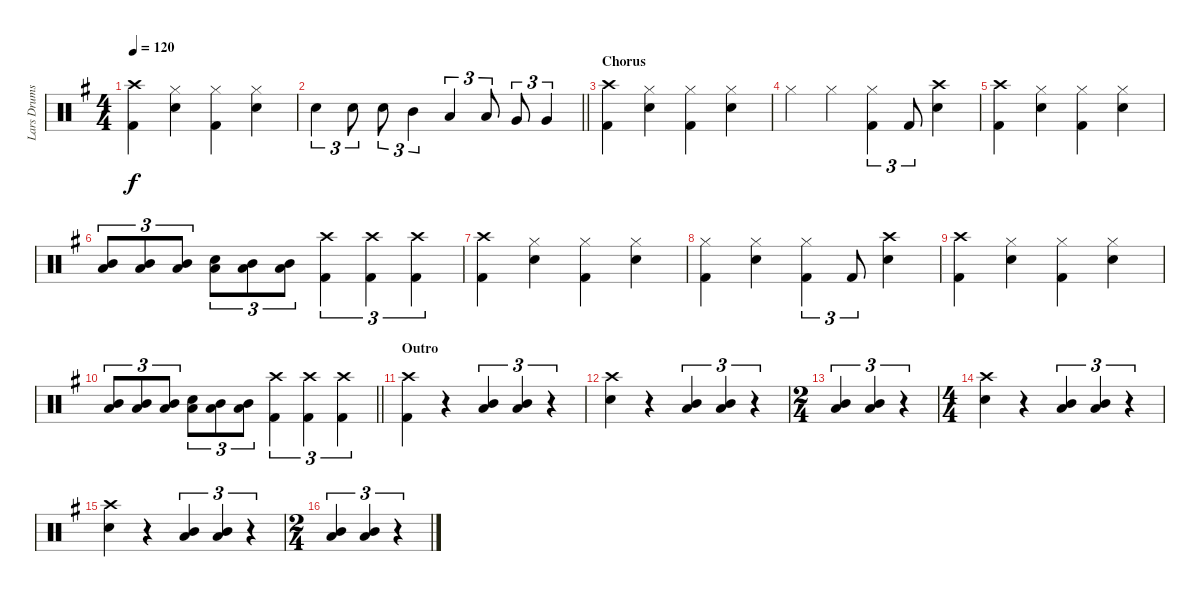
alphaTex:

\track ("Lars Drums" "Lars Drums") {instrument percussion}
\staff {score}
\articulation defaults
\ts (4 4)
\tempo 120
\clef neutral
\ks g
("Crash high (hit)" "Kick (hit) 2").4{dy f} ("Hi-Hat (closed)" "Snare (hit) 2").4 ("Hi-Hat (closed)" "Kick (hit) 2").4 ("Hi-Hat (closed)" "Snare (hit) 2").4 |
\barLineRight lightlight "Snare (hit) 2".4{tu (3 2)} "Snare (hit) 2".8{tu (3 2)} "Snare (hit) 2".8{tu (3 2)} "Mid Tom (hit)".4{tu (3 2)} "Low Tom (hit)".4{tu (3 2)} "Low Tom (hit)".8{tu (3 2)} "Very Low Tom (hit)".8{tu (3 2)} "Very Low Tom (hit)".4{tu (3 2)}
|
\section ("" "Chorus")
("Crash high (hit)" "Kick (hit) 2").4 ("Hi-Hat (closed)" "Snare (hit) 2").4 ("Hi-Hat (closed)" "Kick (hit) 2").4 ("Hi-Hat (closed)" "Snare (hit) 2").4 |
"Hi-Hat (closed)".4 "Hi-Hat (closed)".4 ("Hi-Hat (closed)" "Kick (hit) 2").4{tu (3 2)} "Kick (hit) 2".8{tu (3 2)} ("Crash high (hit)" "Snare (hit) 2").4 |
("Crash high (hit)" "Kick (hit) 2").4 ("Hi-Hat (closed)" "Snare (hit) 2").4 ("Hi-Hat (closed)" "Kick (hit) 2").4 ("Hi-Hat (closed)" "Snare (hit) 2").4 |
("Low Tom (hit)" "Mid Tom (hit)").8{tu (3 2)} ("Low Tom (hit)" "Mid Tom (hit)").8{tu (3 2)} ("Low Tom (hit)" "Mid Tom (hit)").8{tu (3 2)} ("Low Tom (hit)" "Snare (hit) 2").8{tu (3 2)} ("Low Tom (hit)" "Mid Tom (hit)").8{tu (3 2)} ("Low Tom (hit)" "Mid Tom (hit)").8{tu (3 2)} ("Crash high (hit)" "Kick (hit) 2").4{tu (3 2)} ("Crash high (hit)" "Kick (hit) 2").4{tu (3 2)} ("Crash high (hit)" "Kick (hit) 2").4{tu (3 2)} |
("Crash high (hit)" "Kick (hit) 2").4 ("Hi-Hat (closed)" "Snare (hit) 2").4 ("Hi-Hat (closed)" "Kick (hit) 2").4 ("Hi-Hat (closed)" "Snare (hit) 2").4 |
("Hi-Hat (closed)" "Kick (hit) 2").4 ("Hi-Hat (closed)" "Snare (hit) 2").4 ("Hi-Hat (closed)" "Kick (hit) 2").4{tu (3 2)} "Kick (hit) 2".8{tu (3 2)} ("Crash high (hit)" "Snare (hit) 2").4 |
("Crash high (hit)" "Kick (hit) 2").4 ("Hi-Hat (closed)" "Snare (hit) 2").4 ("Hi-Hat (closed)" "Kick (hit) 2").4 ("Hi-Hat (closed)" "Snare (hit) 2").4 |
\barLineRight lightlight
("Low Tom (hit)" "Mid Tom (hit)").8{tu (3 2)} ("Low Tom (hit)" "Mid Tom (hit)").8{tu (3 2)} ("Low Tom (hit)" "Mid Tom (hit)").8{tu (3 2)} ("Low Tom (hit)" "Snare (hit) 2").8{tu (3 2)} ("Low Tom (hit)" "Mid Tom (hit)").8{tu (3 2)} ("Low Tom (hit)" "Mid Tom (hit)").8{tu (3 2)} ("Crash high (hit)" "Kick (hit) 2").4{tu (3 2)} ("Crash high (hit)" "Kick (hit) 2").4{tu (3 2)} ("Crash high (hit)" "Kick (hit) 2").4{tu (3 2)} |
\section ("" "Outro")
("Crash high (hit)" "Kick (hit) 2").4 r.4 ("Mid Tom (hit)" "Low Tom (hit)").4{tu (3 2)} ("Mid Tom (hit)" "Low Tom (hit)").4{tu (3 2)} r.4{tu (3 2)} |
("Crash high (hit)" "Snare (hit) 2").4 r.4 ("Mid Tom (hit)" "Low Tom (hit)").4{tu (3 2)} ("Mid Tom (hit)" "Low Tom (hit)").4{tu (3 2)} r.4{tu (3 2)} |
\ts (2 4)
("Mid Tom (hit)" "Low Tom (hit)").4{tu (3 2)} ("Mid Tom (hit)" "Low Tom (hit)").4{tu (3 2)} r.4{tu (3 2)} |
\ts (4 4)
("Crash high (hit)" "Snare (hit) 2").4 r.4 ("Mid Tom (hit)" "Low Tom (hit)").4{tu (3 2)} ("Mid Tom (hit)" "Low Tom (hit)").4{tu (3 2)} r.4{tu (3 2)} |
("Crash high (hit)" "Snare (hit) 2").4 r.4 ("Mid Tom (hit)" "Low Tom (hit)").4{tu (3 2)} ("Mid Tom (hit)" "Low Tom (hit)").4{tu (3 2)} r.4{tu (3 2)} |
\ts (2 4)
("Mid Tom (hit)" "Low Tom (hit)").4{tu (3 2)} ("Mid Tom (hit)" "Low Tom (hit)").4{tu (3 2)} r.4{tu (3 2)}
